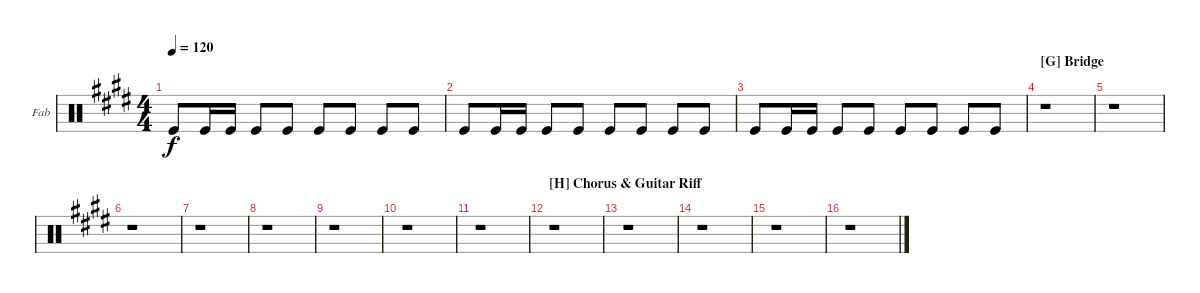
\bracketExtendMode groupsimilarinstruments
\firstSystemTrackNameOrientation horizontal
\otherSystemsTrackNameOrientation horizontal
\track ("Pipe" "Fab") {instrument percussion}
\staff {score}
\articulation defaults
\ts (4 4)
\tempo 120
\clef neutral
\scale
0.333333
\ks e "Kick (hit)".8{dy f} "Kick (hit)".16 "Kick (hit)".16 "Kick (hit)".8 "Kick (hit)".8 "Kick (hit)".8 "Kick (hit)".8 "Kick (hit)".8 "Kick (hit)".8
|
\scale
0.333333 "Kick (hit)".8 "Kick (hit)".16 "Kick (hit)".16 "Kick (hit)".8 "Kick (hit)".8 "Kick (hit)".8 "Kick (hit)".8 "Kick (hit)".8 "Kick (hit)".8 |
\scale
0.333333 "Kick (hit)".8 "Kick (hit)".16 "Kick (hit)".16 "Kick (hit)".8 "Kick (hit)".8 "Kick (hit)".8 "Kick (hit)".8 "Kick (hit)".8 "Kick (hit)".8 |
\section ("G" "Bridge")
\scale
0.333333 r.1 |
\scale
0.333333 r.1 |
\scale
0.333333 r.1 |
\scale
0.333333 r.1 |
\scale
0.333333 r.1 |
\scale
0.333333 r.1 |
\scale
0.333333 r.1 |
\scale
0.333333 r.1 |
\section ("H" "Chorus & Guitar Riff")
\scale
0.333333 r.1 |
\scale
0.333333 r.1 |
\scale
0.333333 r.1 |
\scale
0.333333 r.1 |
\scale
0.333333 r.1
